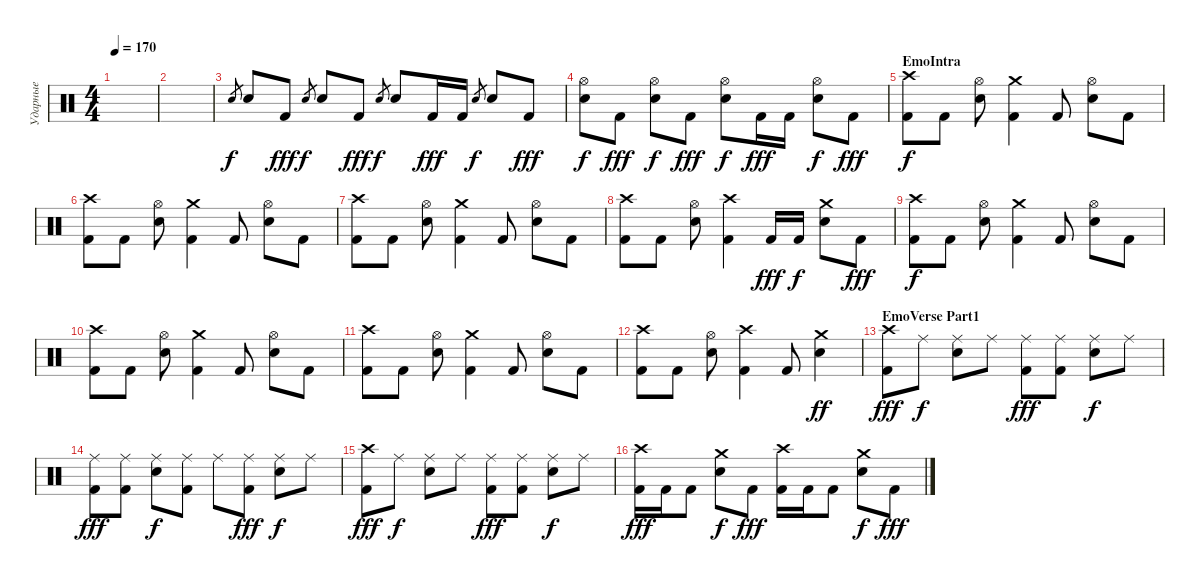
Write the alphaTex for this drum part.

\track ("Ударные" "Ударные") {instrument percussion}
\staff {score}
\articulation defaults
\ts (4 4)
\tempo 170
\clef neutral
\ks c
|
|
"Snare (hit) 2".8{gr} "Snare (hit) 2".8 "Kick (hit) 2".8{dy fff} "Snare (hit) 2".8{gr dy f} "Snare (hit) 2".8 "Kick (hit) 2".8{dy fff} "Snare (hit) 2".8{gr dy f} "Snare (hit) 2".8 "Kick (hit) 2".16{dy fff} "Kick (hit) 2".16 "Snare (hit) 2".8{gr dy f} "Snare (hit) 2".8 "Kick (hit) 2".8{dy fff} |
("Snare (hit) 2" "Hi-Hat (open)").8{dy f} "Kick (hit) 2".8{dy fff} ("Snare (hit) 2" "Hi-Hat (open)").8{dy f} "Kick (hit) 2".8{dy fff} ("Snare (hit) 2" "Hi-Hat (open)").8{dy f} "Kick (hit) 2".16{dy fff} "Kick (hit) 2".16 ("Snare (hit) 2" "Hi-Hat (open)").8{dy f} "Kick (hit) 2".8{dy fff} |
\section ("" "EmoIntra")
("Kick (hit) 2" "Crash high (hit)").8{dy f} "Kick (hit) 2".8 ("Snare (hit) 2" "Hi-Hat (open)").8 ("Kick (hit) 2" "Crash medium (hit)").4 "Kick (hit) 2".8 ("Snare (hit) 2" "Hi-Hat (open)").8 "Kick (hit) 2".8 |
("Kick (hit) 2" "Crash high (hit)").8 "Kick (hit) 2".8 ("Snare (hit) 2" "Hi-Hat (open)").8 ("Kick (hit) 2" "Crash medium (hit)").4 "Kick (hit) 2".8 ("Snare (hit) 2" "Hi-Hat (open)").8 "Kick (hit) 2".8 |
("Kick (hit) 2" "Crash high (hit)").8 "Kick (hit) 2".8 ("Snare (hit) 2" "Hi-Hat (open)").8 ("Kick (hit) 2" "Crash medium (hit)").4 "Kick (hit) 2".8 ("Snare (hit) 2" "Hi-Hat (open)").8 "Kick (hit) 2".8 |
("Kick (hit) 2" "Crash high (hit)").8 "Kick (hit) 2".8 ("Snare (hit) 2" "Hi-Hat (open)").8 ("Kick (hit) 2" "Crash high (hit)").4 "Kick (hit) 2".16{dy fff} "Kick (hit) 2".16{dy f} ("Snare (hit) 2" "Crash medium (hit)").8 "Kick (hit) 2".8{dy fff} |
("Kick (hit) 2" "Crash high (hit)").8{dy f} "Kick (hit) 2".8 ("Snare (hit) 2" "Hi-Hat (open)").8 ("Kick (hit) 2" "Crash medium (hit)").4 "Kick (hit) 2".8 ("Snare (hit) 2" "Hi-Hat (open)").8 "Kick (hit) 2".8 |
("Kick (hit) 2" "Crash high (hit)").8 "Kick (hit) 2".8 ("Snare (hit) 2" "Hi-Hat (open)").8 ("Kick (hit) 2" "Crash medium (hit)").4 "Kick (hit) 2".8 ("Snare (hit) 2" "Hi-Hat (open)").8 "Kick (hit) 2".8 |
("Kick (hit) 2" "Crash high (hit)").8 "Kick (hit) 2".8 ("Snare (hit) 2" "Hi-Hat (open)").8 ("Kick (hit) 2" "Crash medium (hit)").4 "Kick (hit) 2".8 ("Snare (hit) 2" "Hi-Hat (open)").8 "Kick (hit) 2".8 |
("Kick (hit) 2" "Crash high (hit)").8 "Kick (hit) 2".8 ("Snare (hit) 2" "Hi-Hat (open)").8 ("Kick (hit) 2" "Crash high (hit)").4 "Kick (hit) 2".8 ("Snare (hit) 2" "Crash medium (hit)").4{dy ff} |
\section ("" "EmoVerse Part1")
("Kick (hit) 2" "Crash high (hit)").8{dy fff} "Ride (middle)".8{dy f} ("Snare (hit) 2" "Ride (middle)").8 "Ride (middle)".8 ("Kick (hit) 2" "Ride (middle)").8{dy fff} ("Kick (hit) 2" "Ride (middle)").8 ("Snare (hit) 2" "Ride (middle)").8{dy f} "Ride (middle)".8 |
("Kick (hit) 2" "Ride (middle)").8{dy fff} ("Kick (hit) 2" "Ride (middle)").8 ("Snare (hit) 2" "Ride (middle)").8{dy f} ("Kick (hit) 2" "Ride (middle)").8 "Ride (middle)".8 ("Kick (hit) 2" "Ride (middle)").8{dy fff} ("Snare (hit) 2" "Ride (middle)").8{dy f} "Ride (middle)".8 |
("Kick (hit) 2" "Crash high (hit)").8{dy fff} "Ride (middle)".8{dy f} ("Snare (hit) 2" "Ride (middle)").8 "Ride (middle)".8 ("Kick (hit) 2" "Ride (middle)").8{dy fff} ("Kick (hit) 2" "Ride (middle)").8 ("Snare (hit) 2" "Ride (middle)").8{dy f} "Ride (middle)".8 |
("Kick (hit) 2" "Crash high (hit)").16{dy fff} "Kick (hit) 2".16 "Kick (hit) 2".8 ("Snare (hit) 2" "Crash medium (hit)").8{dy f} "Kick (hit) 2".8{dy fff} ("Kick (hit) 2" "Crash high (hit)").16 "Kick (hit) 2".16 "Kick (hit) 2".8 ("Snare (hit) 2" "Crash medium (hit)").8{dy f} "Kick (hit) 2".8{dy fff}
